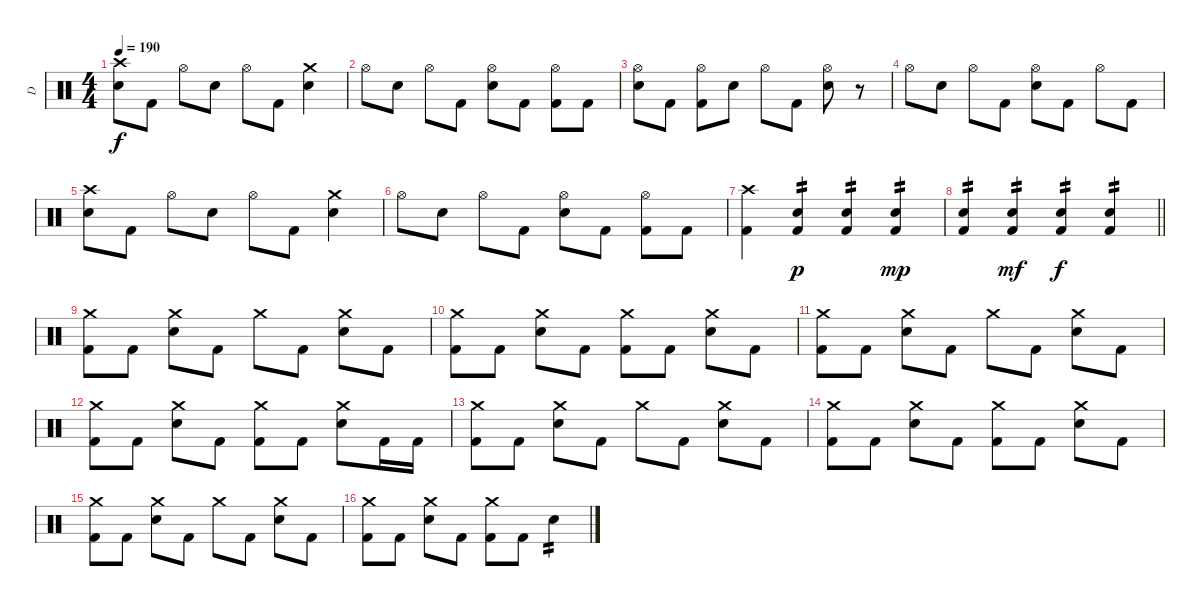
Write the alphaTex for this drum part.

\track ("D" "D") {instrument percussion}
\staff {score}
\articulation defaults
\ts (4 4)
\tempo 190
\clef neutral
\ks c
("Crash high (hit)" "Electric Snare (hit)").8{dy f} "Kick (hit) 2".8 "Hi-Hat (open)".8 "Electric Snare (hit)".8 "Hi-Hat (open)".8 "Kick (hit) 2".8 ("Crash medium (hit)" "Electric Snare (hit)").4 |
"Hi-Hat (open)".8 "Electric Snare (hit)".8 "Hi-Hat (open)".8 "Kick (hit) 2".8 ("Hi-Hat (open)" "Electric Snare (hit)").8 "Kick (hit) 2".8 ("Hi-Hat (open)" "Kick (hit) 2").8 "Kick (hit) 2".8 |
("Hi-Hat (open)" "Electric Snare (hit)").8 "Kick (hit) 2".8 ("Hi-Hat (open)" "Kick (hit) 2").8 "Electric Snare (hit)".8 "Hi-Hat (open)".8 "Kick (hit) 2".8 ("Hi-Hat (open)" "Electric Snare (hit)").8 r.8 |
"Hi-Hat (open)".8 "Electric Snare (hit)".8 "Hi-Hat (open)".8 "Kick (hit) 2".8 ("Hi-Hat (open)" "Electric Snare (hit)").8 "Kick (hit) 2".8 "Hi-Hat (open)".8 "Kick (hit) 2".8 |
("Crash high (hit)" "Electric Snare (hit)").8 "Kick (hit) 2".8 "Hi-Hat (open)".8 "Electric Snare (hit)".8 "Hi-Hat (open)".8 "Kick (hit) 2".8 ("Crash medium (hit)" "Electric Snare (hit)").4 |
"Hi-Hat (open)".8 "Electric Snare (hit)".8 "Hi-Hat (open)".8 "Kick (hit) 2".8 ("Hi-Hat (open)" "Electric Snare (hit)").8 "Kick (hit) 2".8 ("Hi-Hat (open)" "Kick (hit) 2").8 "Kick (hit) 2".8 |
("Crash high (hit)" "Kick (hit) 2").4 ("Electric Snare (hit)" "Kick (hit) 2").4{tp 2 dy p} ("Electric Snare (hit)" "Kick (hit) 2").4{tp 2} ("Electric Snare (hit)" "Kick (hit) 2").4{tp 2 dy mp} |
\barLineRight lightlight
("Electric Snare (hit)" "Kick (hit) 2").4{tp 2} ("Electric Snare (hit)" "Kick (hit) 2").4{tp 2 dy mf} ("Electric Snare (hit)" "Kick (hit) 2").4{tp 2 dy f} ("Electric Snare (hit)" "Kick (hit) 2").4{tp 2} |
\section ("" "")
("Crash medium (hit)" "Kick (hit) 2").8 "Kick (hit) 2".8 ("Crash medium (hit)" "Electric Snare (hit)").8 "Kick (hit) 2".8 "Crash medium (hit)".8 "Kick (hit) 2".8 ("Crash medium (hit)" "Electric Snare (hit)").8 "Kick (hit) 2".8 |
("Crash medium (hit)" "Kick (hit) 2").8 "Kick (hit) 2".8 ("Crash medium (hit)" "Electric Snare (hit)").8 "Kick (hit) 2".8 ("Crash medium (hit)" "Kick (hit) 2").8 "Kick (hit) 2".8 ("Crash medium (hit)" "Electric Snare (hit)").8 "Kick (hit) 2".8 |
("Crash medium (hit)" "Kick (hit) 2").8 "Kick (hit) 2".8 ("Crash medium (hit)" "Electric Snare (hit)").8 "Kick (hit) 2".8 "Crash medium (hit)".8 "Kick (hit) 2".8 ("Crash medium (hit)" "Electric Snare (hit)").8 "Kick (hit) 2".8 |
("Crash medium (hit)" "Kick (hit) 2").8 "Kick (hit) 2".8 ("Crash medium (hit)" "Electric Snare (hit)").8 "Kick (hit) 2".8 ("Crash medium (hit)" "Kick (hit) 2").8 "Kick (hit) 2".8 ("Crash medium (hit)" "Electric Snare (hit)").8 "Kick (hit) 2".16 "Kick (hit) 2".16 |
("Crash medium (hit)" "Kick (hit) 2").8 "Kick (hit) 2".8 ("Crash medium (hit)" "Electric Snare (hit)").8 "Kick (hit) 2".8 "Crash medium (hit)".8 "Kick (hit) 2".8 ("Crash medium (hit)" "Electric Snare (hit)").8 "Kick (hit) 2".8 |
("Crash medium (hit)" "Kick (hit) 2").8 "Kick (hit) 2".8 ("Crash medium (hit)" "Electric Snare (hit)").8 "Kick (hit) 2".8 ("Crash medium (hit)" "Kick (hit) 2").8 "Kick (hit) 2".8 ("Crash medium (hit)" "Electric Snare (hit)").8 "Kick (hit) 2".8 |
("Crash medium (hit)" "Kick (hit) 2").8 "Kick (hit) 2".8 ("Crash medium (hit)" "Electric Snare (hit)").8 "Kick (hit) 2".8 "Crash medium (hit)".8 "Kick (hit) 2".8 ("Crash medium (hit)" "Electric Snare (hit)").8 "Kick (hit) 2".8 |
("Crash medium (hit)" "Kick (hit) 2").8 "Kick (hit) 2".8 ("Crash medium (hit)" "Electric Snare (hit)").8 "Kick (hit) 2".8 ("Crash medium (hit)" "Kick (hit) 2").8 "Kick (hit) 2".8 "Electric Snare (hit)".4{tp 2}
